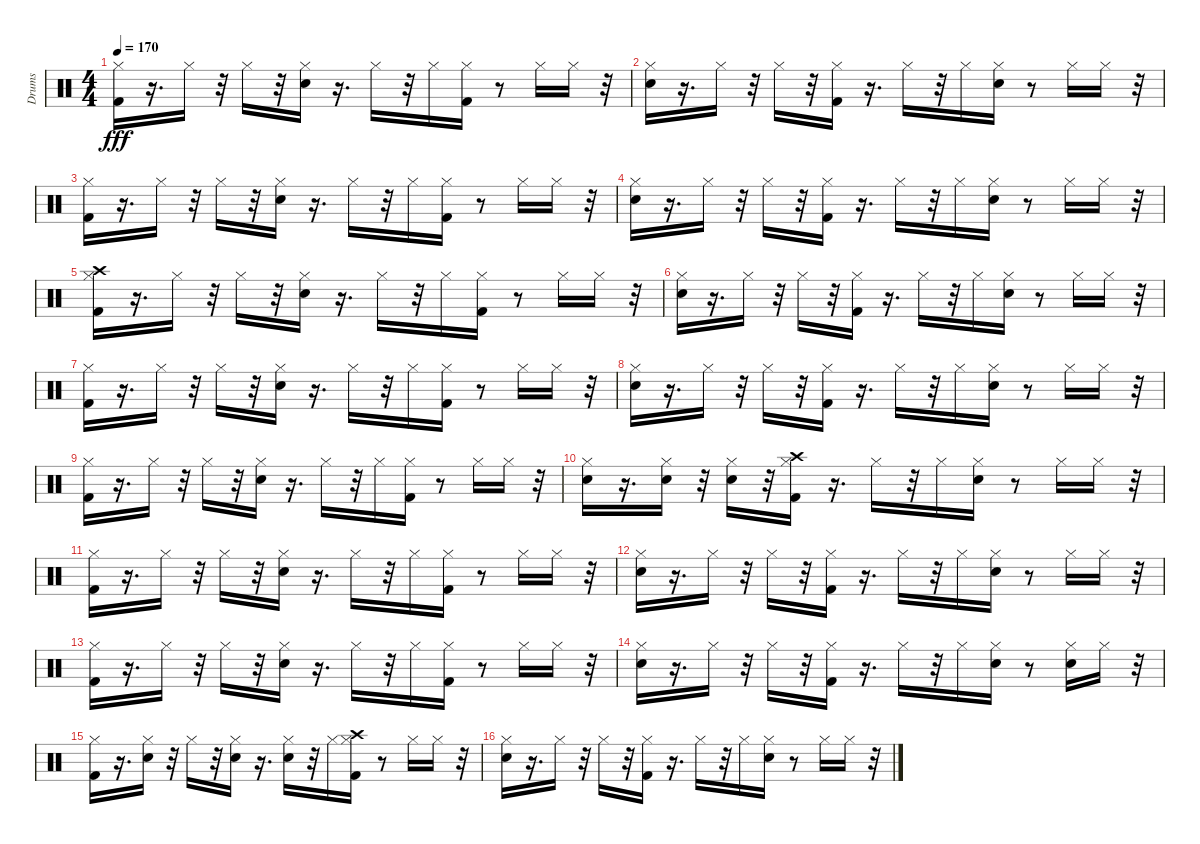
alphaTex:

\track ("Drums" "Drums") {instrument percussion}
\staff {score}
\articulation defaults
\ts (4 4)
\tempo 170
\clef neutral
\ks c
("Kick (hit) 2" "Hi-Hat (closed)").16{dy fff} r.16{d} "Hi-Hat (closed)".16 r.32 "Hi-Hat (closed)".16 r.32 ("Snare (hit) 2" "Hi-Hat (closed)").16 r.16{d} "Hi-Hat (closed)".16 r.32 "Hi-Hat (closed)".16 ("Kick (hit) 2" "Hi-Hat (closed)").16 r.8 "Hi-Hat (closed)".16 "Hi-Hat (closed)".16 r.32 |
("Snare (hit) 2" "Hi-Hat (closed)").16 r.16{d} "Hi-Hat (closed)".16 r.32 "Hi-Hat (closed)".16 r.32 ("Kick (hit) 2" "Hi-Hat (closed)").16 r.16{d} "Hi-Hat (closed)".16 r.32 "Hi-Hat (closed)".16 ("Snare (hit) 2" "Hi-Hat (closed)").16 r.8 "Hi-Hat (closed)".16 "Hi-Hat (closed)".16 r.32 |
("Kick (hit) 2" "Hi-Hat (closed)").16 r.16{d} "Hi-Hat (closed)".16 r.32 "Hi-Hat (closed)".16 r.32 ("Snare (hit) 2" "Hi-Hat (closed)").16 r.16{d} "Hi-Hat (closed)".16 r.32 "Hi-Hat (closed)".16 ("Kick (hit) 2" "Hi-Hat (closed)").16 r.8 "Hi-Hat (closed)".16 "Hi-Hat (closed)".16 r.32 |
("Snare (hit) 2" "Hi-Hat (closed)").16 r.16{d} "Hi-Hat (closed)".16 r.32 "Hi-Hat (closed)".16 r.32 ("Kick (hit) 2" "Hi-Hat (closed)").16 r.16{d} "Hi-Hat (closed)".16 r.32 "Hi-Hat (closed)".16 ("Snare (hit) 2" "Hi-Hat (closed)").16 r.8 "Hi-Hat (closed)".16 "Hi-Hat (closed)".16 r.32 |
("Kick (hit) 2" "Hi-Hat (closed)" "Crash high (hit)").16 r.16{d} "Hi-Hat (closed)".16 r.32 "Hi-Hat (closed)".16 r.32 ("Snare (hit) 2" "Hi-Hat (closed)").16 r.16{d} "Hi-Hat (closed)".16 r.32 "Hi-Hat (closed)".16 ("Kick (hit) 2" "Hi-Hat (closed)").16 r.8 "Hi-Hat (closed)".16 "Hi-Hat (closed)".16 r.32 |
("Snare (hit) 2" "Hi-Hat (closed)").16 r.16{d} "Hi-Hat (closed)".16 r.32 "Hi-Hat (closed)".16 r.32 ("Kick (hit) 2" "Hi-Hat (closed)").16 r.16{d} "Hi-Hat (closed)".16 r.32 "Hi-Hat (closed)".16 ("Snare (hit) 2" "Hi-Hat (closed)").16 r.8 "Hi-Hat (closed)".16 "Hi-Hat (closed)".16 r.32 |
("Kick (hit) 2" "Hi-Hat (closed)").16 r.16{d} "Hi-Hat (closed)".16 r.32 "Hi-Hat (closed)".16 r.32 ("Snare (hit) 2" "Hi-Hat (closed)").16 r.16{d} "Hi-Hat (closed)".16 r.32 "Hi-Hat (closed)".16 ("Kick (hit) 2" "Hi-Hat (closed)").16 r.8 "Hi-Hat (closed)".16 "Hi-Hat (closed)".16 r.32 |
("Snare (hit) 2" "Hi-Hat (closed)").16 r.16{d} "Hi-Hat (closed)".16 r.32 "Hi-Hat (closed)".16 r.32 ("Kick (hit) 2" "Hi-Hat (closed)").16 r.16{d} "Hi-Hat (closed)".16 r.32 "Hi-Hat (closed)".16 ("Snare (hit) 2" "Hi-Hat (closed)").16 r.8 "Hi-Hat (closed)".16 "Hi-Hat (closed)".16 r.32 |
("Kick (hit) 2" "Hi-Hat (closed)").16 r.16{d} "Hi-Hat (closed)".16 r.32 "Hi-Hat (closed)".16 r.32 ("Snare (hit) 2" "Hi-Hat (closed)").16 r.16{d} "Hi-Hat (closed)".16 r.32 "Hi-Hat (closed)".16 ("Kick (hit) 2" "Hi-Hat (closed)").16 r.8 "Hi-Hat (closed)".16 "Hi-Hat (closed)".16 r.32 |
("Snare (hit) 2" "Hi-Hat (closed)").16 r.16{d} ("Hi-Hat (closed)" "Snare (hit) 2").16 r.32 ("Hi-Hat (closed)" "Snare (hit) 2").16 r.32 ("Kick (hit) 2" "Hi-Hat (closed)" "Crash high (hit)").16 r.16{d} "Hi-Hat (closed)".16 r.32 "Hi-Hat (closed)".16 ("Snare (hit) 2" "Hi-Hat (closed)").16 r.8 "Hi-Hat (closed)".16 "Hi-Hat (closed)".16 r.32 |
("Kick (hit) 2" "Hi-Hat (closed)").16 r.16{d} "Hi-Hat (closed)".16 r.32 "Hi-Hat (closed)".16 r.32 ("Snare (hit) 2" "Hi-Hat (closed)").16 r.16{d} "Hi-Hat (closed)".16 r.32 "Hi-Hat (closed)".16 ("Kick (hit) 2" "Hi-Hat (closed)").16 r.8 "Hi-Hat (closed)".16 "Hi-Hat (closed)".16 r.32 |
("Snare (hit) 2" "Hi-Hat (closed)").16 r.16{d} "Hi-Hat (closed)".16 r.32 "Hi-Hat (closed)".16 r.32 ("Kick (hit) 2" "Hi-Hat (closed)").16 r.16{d} "Hi-Hat (closed)".16 r.32 "Hi-Hat (closed)".16 ("Snare (hit) 2" "Hi-Hat (closed)").16 r.8 "Hi-Hat (closed)".16 "Hi-Hat (closed)".16 r.32 |
("Kick (hit) 2" "Hi-Hat (closed)").16 r.16{d} "Hi-Hat (closed)".16 r.32 "Hi-Hat (closed)".16 r.32 ("Snare (hit) 2" "Hi-Hat (closed)").16 r.16{d} "Hi-Hat (closed)".16 r.32 "Hi-Hat (closed)".16 ("Kick (hit) 2" "Hi-Hat (closed)").16 r.8 "Hi-Hat (closed)".16 "Hi-Hat (closed)".16 r.32 |
("Snare (hit) 2" "Hi-Hat (closed)").16 r.16{d} "Hi-Hat (closed)".16 r.32 "Hi-Hat (closed)".16 r.32 ("Kick (hit) 2" "Hi-Hat (closed)").16 r.16{d} "Hi-Hat (closed)".16 r.32 "Hi-Hat (closed)".16 ("Snare (hit) 2" "Hi-Hat (closed)").16 r.8 ("Hi-Hat (closed)" "Snare (hit) 2").16 "Hi-Hat (closed)".16 r.32 |
("Kick (hit) 2" "Hi-Hat (closed)").16 r.16{d} ("Hi-Hat (closed)" "Snare (hit) 2").16 r.32 "Hi-Hat (closed)".16 r.32 ("Snare (hit) 2" "Hi-Hat (closed)").16 r.16{d} ("Hi-Hat (closed)" "Snare (hit) 2").16 r.32 "Hi-Hat (closed)".16 ("Kick (hit) 2" "Hi-Hat (closed)" "Crash high (hit)").16 r.8 "Hi-Hat (closed)".16 "Hi-Hat (closed)".16 r.32 |
("Snare (hit) 2" "Hi-Hat (closed)").16 r.16{d} "Hi-Hat (closed)".16 r.32 "Hi-Hat (closed)".16 r.32 ("Kick (hit) 2" "Hi-Hat (closed)").16 r.16{d} "Hi-Hat (closed)".16 r.32 "Hi-Hat (closed)".16 ("Snare (hit) 2" "Hi-Hat (closed)").16 r.8 "Hi-Hat (closed)".16 "Hi-Hat (closed)".16 r.32
